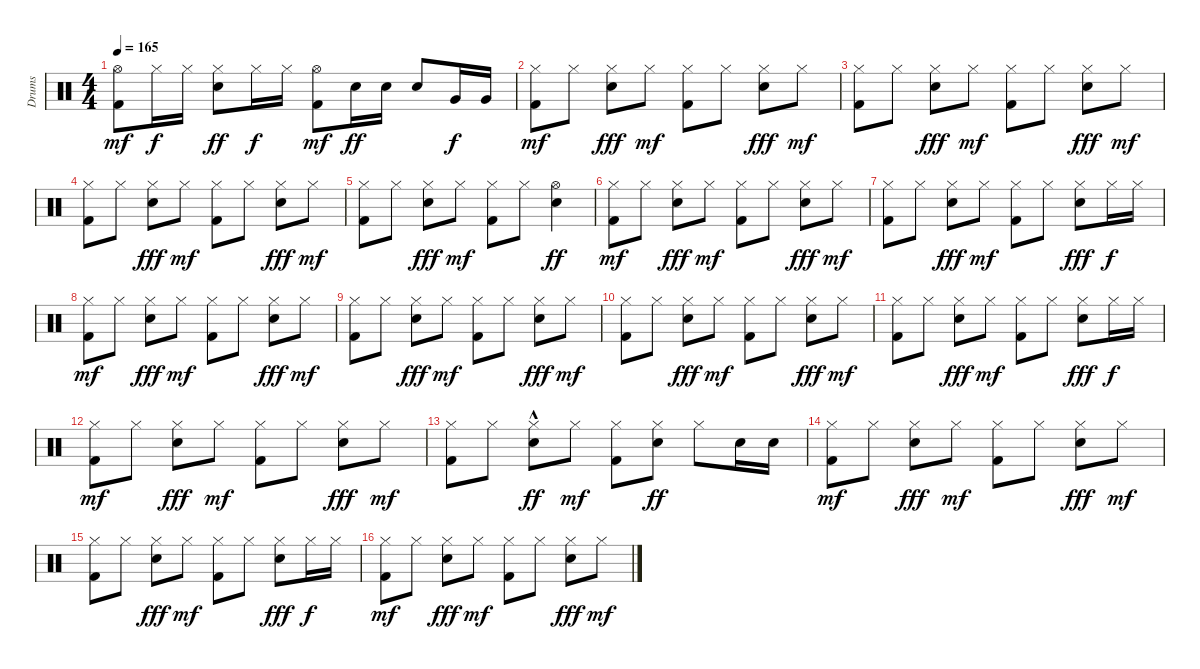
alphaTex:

\track ("Drums" "Drums") {instrument percussion}
\staff {score}
\articulation defaults
\ts (4 4)
\tempo 165
\clef neutral
\ks c
("Hi-Hat (open)" "Kick (hit) 2").8{dy mf} "Hi-Hat (closed)".16{dy f} "Hi-Hat (closed)".16 ("Hi-Hat (closed)" "Electric Snare (hit)").8{dy ff} "Hi-Hat (closed)".16{dy f} "Hi-Hat (closed)".16 ("Hi-Hat (open)" "Kick (hit) 2").8{dy mf} "Electric Snare (hit)".16{dy ff} "Electric Snare (hit)".16 "Electric Snare (hit)".8 "Very Low Tom (hit)".16{dy f} "Very Low Tom (hit)".16 |
("Hi-Hat (closed)" "Kick (hit) 2").8{dy mf} "Hi-Hat (closed)".8 ("Hi-Hat (closed)" "Electric Snare (hit)").8{dy fff} "Hi-Hat (closed)".8{dy mf} ("Hi-Hat (closed)" "Kick (hit) 2").8 "Hi-Hat (closed)".8 ("Hi-Hat (closed)" "Electric Snare (hit)").8{dy fff} "Hi-Hat (closed)".8{dy mf} |
("Hi-Hat (closed)" "Kick (hit) 2").8 "Hi-Hat (closed)".8 ("Hi-Hat (closed)" "Electric Snare (hit)").8{dy fff} "Hi-Hat (closed)".8{dy mf} ("Hi-Hat (closed)" "Kick (hit) 2").8 "Hi-Hat (closed)".8 ("Hi-Hat (closed)" "Electric Snare (hit)").8{dy fff} "Hi-Hat (closed)".8{dy mf} |
("Hi-Hat (closed)" "Kick (hit) 2").8 "Hi-Hat (closed)".8 ("Hi-Hat (closed)" "Electric Snare (hit)").8{dy fff} "Hi-Hat (closed)".8{dy mf} ("Hi-Hat (closed)" "Kick (hit) 2").8 "Hi-Hat (closed)".8 ("Hi-Hat (closed)" "Electric Snare (hit)").8{dy fff} "Hi-Hat (closed)".8{dy mf} |
("Hi-Hat (closed)" "Kick (hit) 2").8 "Hi-Hat (closed)".8 ("Hi-Hat (closed)" "Electric Snare (hit)").8{dy fff} "Hi-Hat (closed)".8{dy mf} ("Hi-Hat (closed)" "Kick (hit) 2").8 "Hi-Hat (closed)".8 ("Hi-Hat (open)" "Electric Snare (hit)").4{dy ff} |
("Hi-Hat (closed)" "Kick (hit) 2").8{dy mf} "Hi-Hat (closed)".8 ("Hi-Hat (closed)" "Electric Snare (hit)").8{dy fff} "Hi-Hat (closed)".8{dy mf} ("Hi-Hat (closed)" "Kick (hit) 2").8 "Hi-Hat (closed)".8 ("Hi-Hat (closed)" "Electric Snare (hit)").8{dy fff} "Hi-Hat (closed)".8{dy mf} |
("Hi-Hat (closed)" "Kick (hit) 2").8 "Hi-Hat (closed)".8 ("Hi-Hat (closed)" "Electric Snare (hit)").8{dy fff} "Hi-Hat (closed)".8{dy mf} ("Hi-Hat (closed)" "Kick (hit) 2").8 "Hi-Hat (closed)".8 ("Hi-Hat (closed)" "Electric Snare (hit)").8{dy fff} "Hi-Hat (closed)".16{dy f} "Hi-Hat (closed)".16 |
("Hi-Hat (closed)" "Kick (hit) 2").8{dy mf} "Hi-Hat (closed)".8 ("Hi-Hat (closed)" "Electric Snare (hit)").8{dy fff} "Hi-Hat (closed)".8{dy mf} ("Hi-Hat (closed)" "Kick (hit) 2").8 "Hi-Hat (closed)".8 ("Hi-Hat (closed)" "Electric Snare (hit)").8{dy fff} "Hi-Hat (closed)".8{dy mf} |
("Hi-Hat (closed)" "Kick (hit) 2").8 "Hi-Hat (closed)".8 ("Hi-Hat (closed)" "Electric Snare (hit)").8{dy fff} "Hi-Hat (closed)".8{dy mf} ("Hi-Hat (closed)" "Kick (hit) 2").8 "Hi-Hat (closed)".8 ("Hi-Hat (closed)" "Electric Snare (hit)").8{dy fff} "Hi-Hat (closed)".8{dy mf} |
("Hi-Hat (closed)" "Kick (hit) 2").8 "Hi-Hat (closed)".8 ("Hi-Hat (closed)" "Electric Snare (hit)").8{dy fff} "Hi-Hat (closed)".8{dy mf} ("Hi-Hat (closed)" "Kick (hit) 2").8 "Hi-Hat (closed)".8 ("Hi-Hat (closed)" "Electric Snare (hit)").8{dy fff} "Hi-Hat (closed)".8{dy mf} |
("Hi-Hat (closed)" "Kick (hit) 2").8 "Hi-Hat (closed)".8 ("Hi-Hat (closed)" "Electric Snare (hit)").8{dy fff} "Hi-Hat (closed)".8{dy mf} ("Hi-Hat (closed)" "Kick (hit) 2").8 "Hi-Hat (closed)".8 ("Hi-Hat (closed)" "Electric Snare (hit)").8{dy fff} "Hi-Hat (closed)".16{dy f} "Hi-Hat (closed)".16 |
("Hi-Hat (closed)" "Kick (hit) 2").8{dy mf} "Hi-Hat (closed)".8 ("Hi-Hat (closed)" "Electric Snare (hit)").8{dy fff} "Hi-Hat (closed)".8{dy mf} ("Hi-Hat (closed)" "Kick (hit) 2").8 "Hi-Hat (closed)".8 ("Hi-Hat (closed)" "Electric Snare (hit)").8{dy fff} "Hi-Hat (closed)".8{dy mf} |
("Hi-Hat (closed)" "Kick (hit) 2").8 "Hi-Hat (closed)".8 ("Hi-Hat (closed)" "Electric Snare (hit)"{hac}).8{dy ff} "Hi-Hat (closed)".8{dy mf} ("Hi-Hat (closed)" "Kick (hit) 2").8 ("Hi-Hat (closed)" "Electric Snare (hit)").8{dy ff} "Hi-Hat (closed)".8 "Electric Snare (hit)".16 "Electric Snare (hit)".16 |
("Hi-Hat (closed)" "Kick (hit) 2").8{dy mf} "Hi-Hat (closed)".8 ("Hi-Hat (closed)" "Electric Snare (hit)").8{dy fff} "Hi-Hat (closed)".8{dy mf} ("Hi-Hat (closed)" "Kick (hit) 2").8 "Hi-Hat (closed)".8 ("Hi-Hat (closed)" "Electric Snare (hit)").8{dy fff} "Hi-Hat (closed)".8{dy mf} |
("Hi-Hat (closed)" "Kick (hit) 2").8 "Hi-Hat (closed)".8 ("Hi-Hat (closed)" "Electric Snare (hit)").8{dy fff} "Hi-Hat (closed)".8{dy mf} ("Hi-Hat (closed)" "Kick (hit) 2").8 "Hi-Hat (closed)".8 ("Hi-Hat (closed)" "Electric Snare (hit)").8{dy fff} "Hi-Hat (closed)".16{dy f} "Hi-Hat (closed)".16 |
("Hi-Hat (closed)" "Kick (hit) 2").8{dy mf} "Hi-Hat (closed)".8 ("Hi-Hat (closed)" "Electric Snare (hit)").8{dy fff} "Hi-Hat (closed)".8{dy mf} ("Hi-Hat (closed)" "Kick (hit) 2").8 "Hi-Hat (closed)".8 ("Hi-Hat (closed)" "Electric Snare (hit)").8{dy fff} "Hi-Hat (closed)".8{dy mf}
